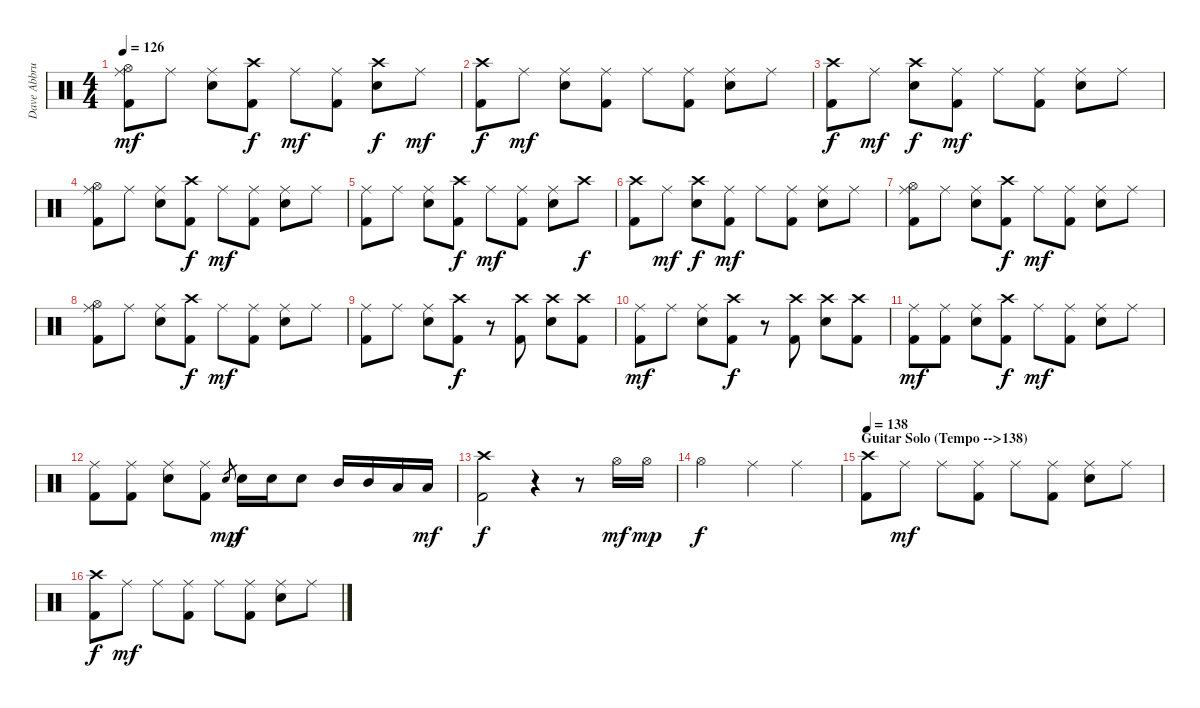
\track ("Dave Abbruze - Drums" "Dave Abbru") {instrument percussion}
\staff {score}
\articulation defaults
\ts (4 4)
\tempo 126
\clef neutral
\ks c
("Ride (middle)" "Hi-Hat (open)" "Kick (hit) 2").8{dy mf} "Ride (middle)".8 ("Ride (middle)" "Electric Snare (hit)").8 ("Crash high (hit)" "Kick (hit) 2").8{dy f} "Ride (middle)".8{dy mf} ("Ride (middle)" "Kick (hit) 2").8 ("Crash high (hit)" "Electric Snare (hit)").8{dy f} "Ride (middle)".8{dy mf} |
("Crash high (hit)" "Kick (hit) 2").8{dy f} "Ride (middle)".8{dy mf} ("Ride (middle)" "Electric Snare (hit)").8 ("Ride (middle)" "Kick (hit) 2").8 "Ride (middle)".8 ("Ride (middle)" "Kick (hit) 2").8 ("Ride (middle)" "Electric Snare (hit)").8 "Ride (middle)".8 |
("Crash high (hit)" "Kick (hit) 2").8{dy f} "Ride (middle)".8{dy mf} ("Crash high (hit)" "Electric Snare (hit)").8{dy f} ("Ride (middle)" "Kick (hit) 2").8{dy mf} "Ride (middle)".8 ("Ride (middle)" "Kick (hit) 2").8 ("Ride (middle)" "Electric Snare (hit)").8 "Ride (middle)".8 |
("Ride (middle)" "Hi-Hat (open)" "Kick (hit) 2").8 "Ride (middle)".8 ("Ride (middle)" "Electric Snare (hit)").8 ("Crash high (hit)" "Kick (hit) 2").8{dy f} "Ride (middle)".8{dy mf} ("Ride (middle)" "Kick (hit) 2").8 ("Ride (middle)" "Electric Snare (hit)").8 "Ride (middle)".8 |
("Ride (middle)" "Kick (hit) 2").8 "Ride (middle)".8 ("Ride (middle)" "Electric Snare (hit)").8 ("Crash high (hit)" "Kick (hit) 2").8{dy f} "Ride (middle)".8{dy mf} ("Ride (middle)" "Kick (hit) 2").8 ("Ride (middle)" "Electric Snare (hit)").8 "Crash high (hit)".8{dy f} |
("Crash high (hit)" "Kick (hit) 2").8 "Ride (middle)".8{dy mf} ("Crash high (hit)" "Electric Snare (hit)").8{dy f} ("Ride (middle)" "Kick (hit) 2").8{dy mf} "Ride (middle)".8 ("Ride (middle)" "Kick (hit) 2").8 ("Ride (middle)" "Electric Snare (hit)").8 "Ride (middle)".8 |
("Ride (middle)" "Hi-Hat (open)" "Kick (hit) 2").8 "Ride (middle)".8 ("Ride (middle)" "Electric Snare (hit)").8 ("Crash high (hit)" "Kick (hit) 2").8{dy f} "Ride (middle)".8{dy mf} ("Ride (middle)" "Kick (hit) 2").8 ("Ride (middle)" "Electric Snare (hit)").8 "Ride (middle)".8 |
("Ride (middle)" "Hi-Hat (open)" "Kick (hit) 2").8 "Ride (middle)".8 ("Ride (middle)" "Electric Snare (hit)").8 ("Crash high (hit)" "Kick (hit) 2").8{dy f} "Ride (middle)".8{dy mf} ("Ride (middle)" "Kick (hit) 2").8 ("Ride (middle)" "Electric Snare (hit)").8 "Ride (middle)".8 |
("Ride (middle)" "Kick (hit) 2").8 "Ride (middle)".8 ("Ride (middle)" "Electric Snare (hit)").8 ("Crash high (hit)" "Kick (hit) 2").8{dy f} r.8 ("Crash high (hit)" "Kick (hit) 2").8 ("Crash high (hit)" "Electric Snare (hit)").8 ("Crash high (hit)" "Kick (hit) 2").8 |
("Ride (middle)" "Kick (hit) 2").8{dy mf} "Ride (middle)".8 ("Ride (middle)" "Electric Snare (hit)").8 ("Crash high (hit)" "Kick (hit) 2").8{dy f} r.8 ("Crash high (hit)" "Kick (hit) 2").8 ("Crash high (hit)" "Electric Snare (hit)").8 ("Crash high (hit)" "Kick (hit) 2").8 |
("Ride (middle)" "Kick (hit) 2").8{dy mf} ("Ride (middle)" "Kick (hit) 2").8 ("Ride (middle)" "Electric Snare (hit)").8 ("Crash high (hit)" "Kick (hit) 2").8{dy f} "Ride (middle)".8{dy mf} ("Ride (middle)" "Kick (hit) 2").8 ("Ride (middle)" "Electric Snare (hit)").8 "Ride (middle)".8 |
("Ride (middle)" "Kick (hit) 2").8 ("Ride (middle)" "Kick (hit) 2").8 ("Ride (middle)" "Electric Snare (hit)").8 ("Ride (middle)" "Kick (hit) 2").8 "Electric Snare (hit)".8{gr dy mp} "Electric Snare (hit)".16{dy f} "Electric Snare (hit)".16 "Electric Snare (hit)".8 "Mid Tom (hit)".16 "Mid Tom (hit)".16 "Low Tom (hit)".16 "Low Tom (hit)".16{dy mf} |
("Crash high (hit)" "Kick (hit) 2").2{dy f} r.4 r.8 "Hi-Hat (open)".16{dy mf} "Hi-Hat (open)".16{dy mp} |
"Hi-Hat (open)".2{dy f} "Ride (middle)".4 "Ride (middle)".4 |
\section ("" "Guitar Solo (Tempo -->138)")
\tempo 138
("Crash high (hit)" "Kick (hit) 2").8 "Ride (middle)".8{dy mf} "Ride (middle)".8 ("Ride (middle)" "Kick (hit) 2").8 "Ride (middle)".8 ("Ride (middle)" "Kick (hit) 2").8 ("Ride (middle)" "Electric Snare (hit)").8 "Ride (middle)".8 |
("Crash high (hit)" "Kick (hit) 2").8{dy f} "Ride (middle)".8{dy mf} "Ride (middle)".8 ("Ride (middle)" "Kick (hit) 2").8 "Ride (middle)".8 ("Ride (middle)" "Kick (hit) 2").8 ("Ride (middle)" "Electric Snare (hit)").8 "Ride (middle)".8
